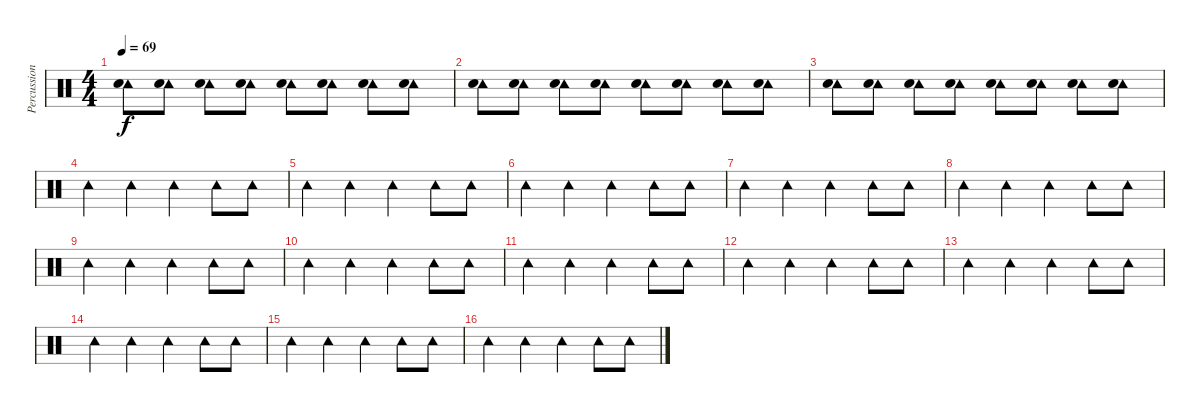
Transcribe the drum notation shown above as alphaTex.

\track ("Percussion" "Percussion") {instrument percussion}
\staff {score}
\articulation defaults
\ts (4 4)
\tempo 69
\clef neutral
\ks c
("Tambourine (hit)" "Snare (hit) 2").8{dy f} ("Tambourine (hit)" "Snare (hit) 2").8 ("Tambourine (hit)" "Snare (hit) 2").8 ("Tambourine (hit)" "Snare (hit) 2").8 ("Tambourine (hit)" "Snare (hit) 2").8 ("Tambourine (hit)" "Snare (hit) 2").8 ("Tambourine (hit)" "Snare (hit) 2").8 ("Tambourine (hit)" "Snare (hit) 2").8 |
("Tambourine (hit)" "Snare (hit) 2").8 ("Tambourine (hit)" "Snare (hit) 2").8 ("Tambourine (hit)" "Snare (hit) 2").8 ("Tambourine (hit)" "Snare (hit) 2").8 ("Tambourine (hit)" "Snare (hit) 2").8 ("Tambourine (hit)" "Snare (hit) 2").8 ("Tambourine (hit)" "Snare (hit) 2").8 ("Tambourine (hit)" "Snare (hit) 2").8 |
("Tambourine (hit)" "Snare (hit) 2").8 ("Tambourine (hit)" "Snare (hit) 2").8 ("Tambourine (hit)" "Snare (hit) 2").8 ("Tambourine (hit)" "Snare (hit) 2").8 ("Tambourine (hit)" "Snare (hit) 2").8 ("Tambourine (hit)" "Snare (hit) 2").8 ("Tambourine (hit)" "Snare (hit) 2").8 ("Tambourine (hit)" "Snare (hit) 2").8 |
"Tambourine (hit)".4 "Tambourine (hit)".4 "Tambourine (hit)".4 "Tambourine (hit)".8 "Tambourine (hit)".8 |
"Tambourine (hit)".4 "Tambourine (hit)".4 "Tambourine (hit)".4 "Tambourine (hit)".8 "Tambourine (hit)".8 |
"Tambourine (hit)".4 "Tambourine (hit)".4 "Tambourine (hit)".4 "Tambourine (hit)".8 "Tambourine (hit)".8 |
"Tambourine (hit)".4 "Tambourine (hit)".4 "Tambourine (hit)".4 "Tambourine (hit)".8 "Tambourine (hit)".8 |
"Tambourine (hit)".4 "Tambourine (hit)".4 "Tambourine (hit)".4 "Tambourine (hit)".8 "Tambourine (hit)".8 |
"Tambourine (hit)".4 "Tambourine (hit)".4 "Tambourine (hit)".4 "Tambourine (hit)".8 "Tambourine (hit)".8 |
"Tambourine (hit)".4 "Tambourine (hit)".4 "Tambourine (hit)".4 "Tambourine (hit)".8 "Tambourine (hit)".8 |
"Tambourine (hit)".4 "Tambourine (hit)".4 "Tambourine (hit)".4 "Tambourine (hit)".8 "Tambourine (hit)".8 |
"Tambourine (hit)".4 "Tambourine (hit)".4 "Tambourine (hit)".4 "Tambourine (hit)".8 "Tambourine (hit)".8 |
"Tambourine (hit)".4 "Tambourine (hit)".4 "Tambourine (hit)".4 "Tambourine (hit)".8 "Tambourine (hit)".8 |
"Tambourine (hit)".4 "Tambourine (hit)".4 "Tambourine (hit)".4 "Tambourine (hit)".8 "Tambourine (hit)".8 |
"Tambourine (hit)".4 "Tambourine (hit)".4 "Tambourine (hit)".4 "Tambourine (hit)".8 "Tambourine (hit)".8 |
"Tambourine (hit)".4 "Tambourine (hit)".4 "Tambourine (hit)".4 "Tambourine (hit)".8 "Tambourine (hit)".8
